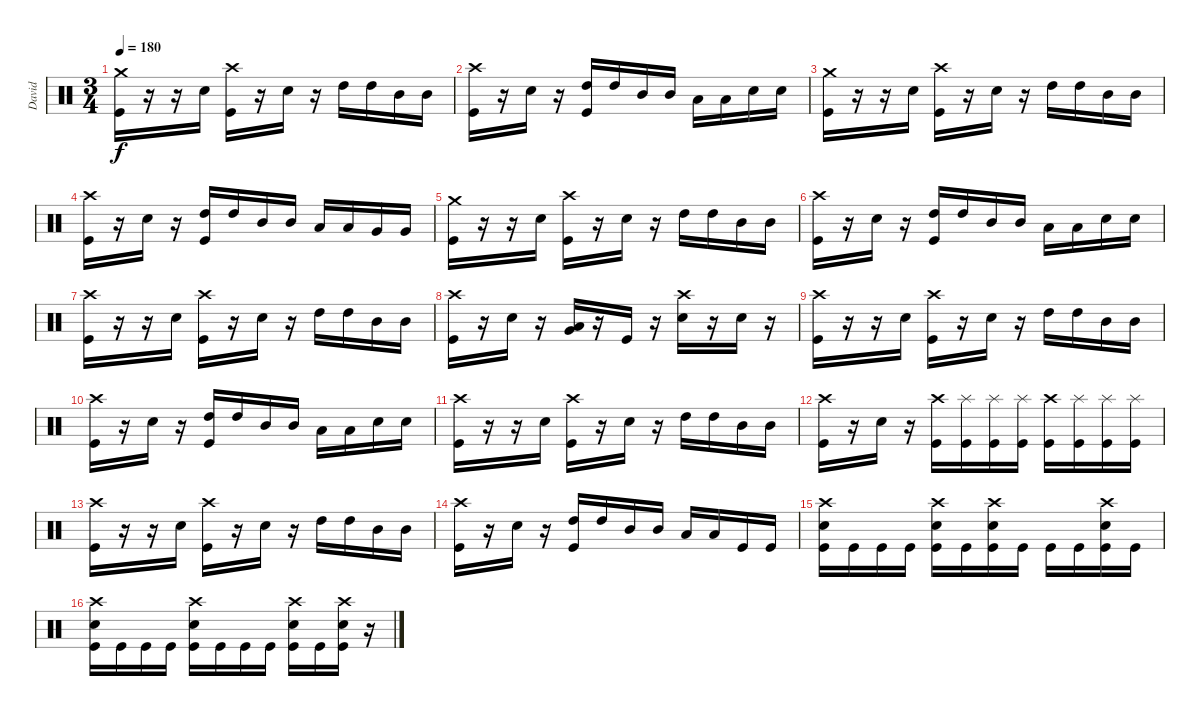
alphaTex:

\track ("David" "David") {instrument percussion}
\staff {score}
\articulation defaults
\ts (3 4)
\tempo 180
\clef neutral
\ks c
("Crash medium (hit)" "Kick (hit)").16{dy f} r.16 r.16 "Electric Snare (hit)".16 ("Crash high (hit)" "Kick (hit)").16 r.16 "Electric Snare (hit)".16 r.16 "High Tom (hit)".16 "High Tom (hit)".16 "Mid Tom (hit)".16 "Mid Tom (hit)".16 |
("Crash high (hit)" "Kick (hit)").16 r.16 "Electric Snare (hit)".16 r.16 ("High Tom (hit)" "Kick (hit)").16 "High Tom (hit)".16 "Mid Tom (hit)".16 "Mid Tom (hit)".16 "Low Tom (hit)".16 "Low Tom (hit)".16 "Electric Snare (hit)".16 "Electric Snare (hit)".16 |
("Crash medium (hit)" "Kick (hit)").16 r.16 r.16 "Electric Snare (hit)".16 ("Crash high (hit)" "Kick (hit)").16 r.16 "Electric Snare (hit)".16 r.16 "High Tom (hit)".16 "High Tom (hit)".16 "Mid Tom (hit)".16 "Mid Tom (hit)".16 |
("Crash high (hit)" "Kick (hit)").16 r.16 "Electric Snare (hit)".16 r.16 ("High Tom (hit)" "Kick (hit)").16 "High Tom (hit)".16 "Mid Tom (hit)".16 "Mid Tom (hit)".16 "Low Tom (hit)".16 "Low Tom (hit)".16 "Very Low Tom (hit)".16 "Very Low Tom (hit)".16 |
("Crash medium (hit)" "Kick (hit)").16 r.16 r.16 "Electric Snare (hit)".16 ("Crash high (hit)" "Kick (hit)").16 r.16 "Electric Snare (hit)".16 r.16 "High Tom (hit)".16 "High Tom (hit)".16 "Mid Tom (hit)".16 "Mid Tom (hit)".16 |
("Crash high (hit)" "Kick (hit)").16 r.16 "Electric Snare (hit)".16 r.16 ("High Tom (hit)" "Kick (hit)").16 "High Tom (hit)".16 "Mid Tom (hit)".16 "Mid Tom (hit)".16 "Low Tom (hit)".16 "Low Tom (hit)".16 "Electric Snare (hit)".16 "Electric Snare (hit)".16 |
("Crash high (hit)" "Kick (hit)").16 r.16 r.16 "Electric Snare (hit)".16 ("Crash high (hit)" "Kick (hit)").16 r.16 "Electric Snare (hit)".16 r.16 "High Tom (hit)".16 "High Tom (hit)".16 "Mid Tom (hit)".16 "Mid Tom (hit)".16 |
("Crash high (hit)" "Kick (hit)").16 r.16 "Electric Snare (hit)".16 r.16 ("Very Low Tom (hit)" "Low Tom (hit)").16 r.16 "Kick (hit)".16 r.16 ("Crash high (hit)" "Electric Snare (hit)").16 r.16 "Electric Snare (hit)".16 r.16 |
("Crash high (hit)" "Kick (hit)").16 r.16 r.16 "Electric Snare (hit)".16 ("Crash high (hit)" "Kick (hit)").16 r.16 "Electric Snare (hit)".16 r.16 "High Tom (hit)".16 "High Tom (hit)".16 "Mid Tom (hit)".16 "Mid Tom (hit)".16 |
("Crash high (hit)" "Kick (hit)").16 r.16 "Electric Snare (hit)".16 r.16 ("High Tom (hit)" "Kick (hit)").16 "High Tom (hit)".16 "Mid Tom (hit)".16 "Mid Tom (hit)".16 "Low Tom (hit)".16 "Low Tom (hit)".16 "Electric Snare (hit)".16 "Electric Snare (hit)".16 |
("Crash high (hit)" "Kick (hit)").16 r.16 r.16 "Electric Snare (hit)".16 ("Crash high (hit)" "Kick (hit)").16 r.16 "Electric Snare (hit)".16 r.16 "High Tom (hit)".16 "High Tom (hit)".16 "Mid Tom (hit)".16 "Mid Tom (hit)".16 |
("Crash high (hit)" "Kick (hit)").16 r.16 "Electric Snare (hit)".16 r.16 ("Crash high (hit)" "Kick (hit)").16 ("Splash (hit)" "Kick (hit)").16 ("Splash (hit)" "Kick (hit)").16 ("Splash (hit)" "Kick (hit)").16 ("Crash high (hit)" "Kick (hit)").16 ("Splash (hit)" "Kick (hit)").16 ("Splash (hit)" "Kick (hit)").16 ("Splash (hit)" "Kick (hit)").16 |
("Crash high (hit)" "Kick (hit)").16 r.16 r.16 "Electric Snare (hit)".16 ("Crash high (hit)" "Kick (hit)").16 r.16 "Electric Snare (hit)".16 r.16 "High Tom (hit)".16 "High Tom (hit)".16 "Mid Tom (hit)".16 "Mid Tom (hit)".16 |
("Crash high (hit)" "Kick (hit)").16 r.16 "Electric Snare (hit)".16 r.16 ("High Tom (hit)" "Kick (hit)").16 "High Tom (hit)".16 "Mid Tom (hit)".16 "Mid Tom (hit)".16 "Low Tom (hit)".16 "Low Tom (hit)".16 "Kick (hit)".16 "Kick (hit)".16 |
("Crash high (hit)" "Electric Snare (hit)" "Kick (hit)").16 "Kick (hit)".16 "Kick (hit)".16 "Kick (hit)".16 ("Crash high (hit)" "Electric Snare (hit)" "Kick (hit)").16 "Kick (hit)".16 ("Crash high (hit)" "Electric Snare (hit)" "Kick (hit)").16 "Kick (hit)".16 "Kick (hit)".16 "Kick (hit)".16 ("Crash high (hit)" "Electric Snare (hit)" "Kick (hit)").16 "Kick (hit)".16 |
("Crash high (hit)" "Electric Snare (hit)" "Kick (hit)").16 "Kick (hit)".16 "Kick (hit)".16 "Kick (hit)".16 ("Crash high (hit)" "Electric Snare (hit)" "Kick (hit)").16 "Kick (hit)".16 "Kick (hit)".16 "Kick (hit)".16 ("Crash high (hit)" "Electric Snare (hit)" "Kick (hit)").16 "Kick (hit)".16 ("Crash high (hit)" "Electric Snare (hit)" "Kick (hit)").16 r.16
